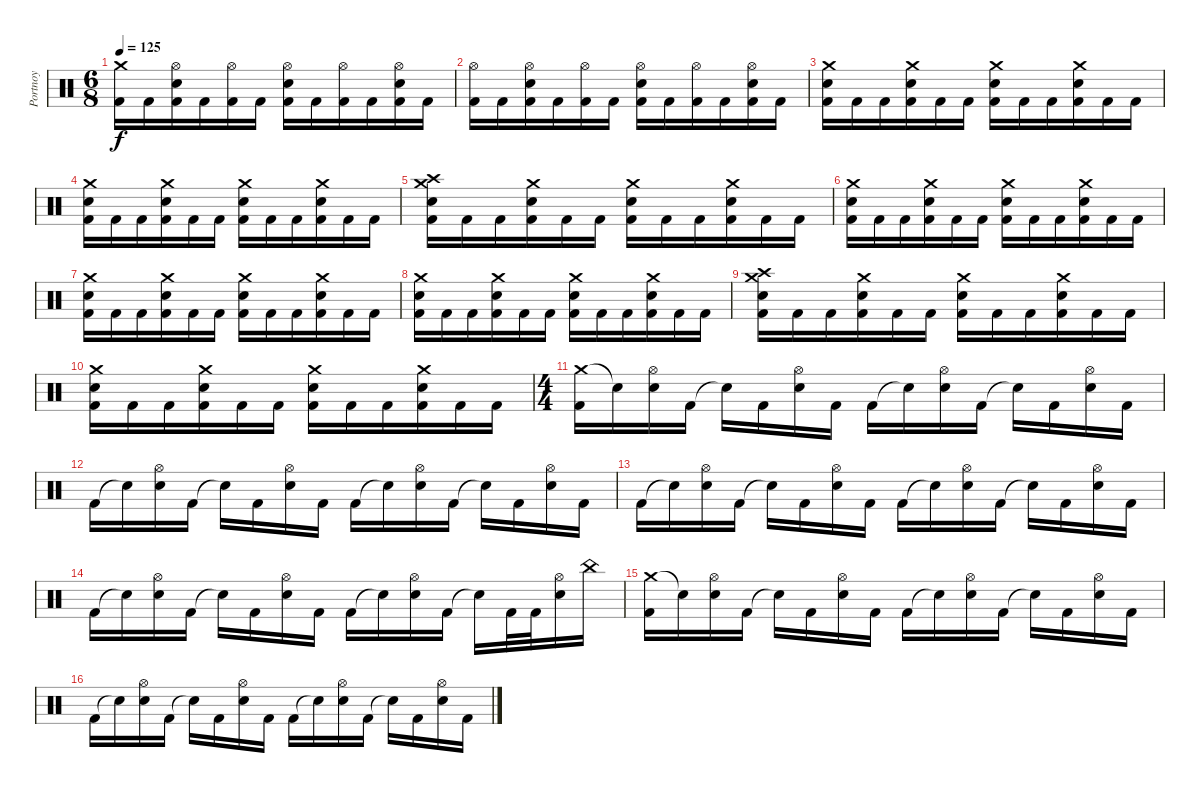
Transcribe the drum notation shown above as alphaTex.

\track ("Portnoy" "Portnoy") {instrument percussion}
\staff {score}
\articulation defaults
\ts (6 8)
\tempo 125
\clef neutral
\ks c
("Crash medium (hit)" "Kick (hit) 2").16{dy f} "Kick (hit) 2".16 ("Hi-Hat (open)" "Snare (hit) 2" "Kick (hit) 2").16 "Kick (hit) 2".16 ("Hi-Hat (open)" "Kick (hit) 2").16 "Kick (hit) 2".16 ("Hi-Hat (open)" "Snare (hit) 2" "Kick (hit) 2").16 "Kick (hit) 2".16 ("Hi-Hat (open)" "Kick (hit) 2").16 "Kick (hit) 2".16 ("Hi-Hat (open)" "Snare (hit) 2" "Kick (hit) 2").16 "Kick (hit) 2".16 |
("Hi-Hat (open)" "Kick (hit) 2").16 "Kick (hit) 2".16 ("Hi-Hat (open)" "Snare (hit) 2" "Kick (hit) 2").16 "Kick (hit) 2".16 ("Hi-Hat (open)" "Kick (hit) 2").16 "Kick (hit) 2".16 ("Hi-Hat (open)" "Snare (hit) 2" "Kick (hit) 2").16 "Kick (hit) 2".16 ("Hi-Hat (open)" "Kick (hit) 2").16 "Kick (hit) 2".16 ("Hi-Hat (open)" "Snare (hit) 2" "Kick (hit) 2").16 "Kick (hit) 2".16 |
("Crash medium (hit)" "Snare (hit) 2" "Kick (hit) 2").16 "Kick (hit) 2".16 "Kick (hit) 2".16 ("Crash medium (hit)" "Snare (hit) 2" "Kick (hit) 2").16 "Kick (hit) 2".16 "Kick (hit) 2".16 ("Crash medium (hit)" "Snare (hit) 2" "Kick (hit) 2").16 "Kick (hit) 2".16 "Kick (hit) 2".16 ("Crash medium (hit)" "Snare (hit) 2" "Kick (hit) 2").16 "Kick (hit) 2".16 "Kick (hit) 2".16 |
("Crash medium (hit)" "Snare (hit) 2" "Kick (hit) 2").16 "Kick (hit) 2".16 "Kick (hit) 2".16 ("Crash medium (hit)" "Snare (hit) 2" "Kick (hit) 2").16 "Kick (hit) 2".16 "Kick (hit) 2".16 ("Crash medium (hit)" "Snare (hit) 2" "Kick (hit) 2").16 "Kick (hit) 2".16 "Kick (hit) 2".16 ("Crash medium (hit)" "Snare (hit) 2" "Kick (hit) 2").16 "Kick (hit) 2".16 "Kick (hit) 2".16 |
("Crash medium (hit)" "Crash high (hit)" "Snare (hit) 2" "Kick (hit) 2").16 "Kick (hit) 2".16 "Kick (hit) 2".16 ("Crash medium (hit)" "Snare (hit) 2" "Kick (hit) 2").16 "Kick (hit) 2".16 "Kick (hit) 2".16 ("Crash medium (hit)" "Snare (hit) 2" "Kick (hit) 2").16 "Kick (hit) 2".16 "Kick (hit) 2".16 ("Crash medium (hit)" "Snare (hit) 2" "Kick (hit) 2").16 "Kick (hit) 2".16 "Kick (hit) 2".16 |
("Crash medium (hit)" "Snare (hit) 2" "Kick (hit) 2").16 "Kick (hit) 2".16 "Kick (hit) 2".16 ("Crash medium (hit)" "Snare (hit) 2" "Kick (hit) 2").16 "Kick (hit) 2".16 "Kick (hit) 2".16 ("Crash medium (hit)" "Snare (hit) 2" "Kick (hit) 2").16 "Kick (hit) 2".16 "Kick (hit) 2".16 ("Crash medium (hit)" "Snare (hit) 2" "Kick (hit) 2").16 "Kick (hit) 2".16 "Kick (hit) 2".16 |
("Crash medium (hit)" "Snare (hit) 2" "Kick (hit) 2").16 "Kick (hit) 2".16 "Kick (hit) 2".16 ("Crash medium (hit)" "Snare (hit) 2" "Kick (hit) 2").16 "Kick (hit) 2".16 "Kick (hit) 2".16 ("Crash medium (hit)" "Snare (hit) 2" "Kick (hit) 2").16 "Kick (hit) 2".16 "Kick (hit) 2".16 ("Crash medium (hit)" "Snare (hit) 2" "Kick (hit) 2").16 "Kick (hit) 2".16 "Kick (hit) 2".16 |
("Crash medium (hit)" "Snare (hit) 2" "Kick (hit) 2").16 "Kick (hit) 2".16 "Kick (hit) 2".16 ("Crash medium (hit)" "Snare (hit) 2" "Kick (hit) 2").16 "Kick (hit) 2".16 "Kick (hit) 2".16 ("Crash medium (hit)" "Snare (hit) 2" "Kick (hit) 2").16 "Kick (hit) 2".16 "Kick (hit) 2".16 ("Crash medium (hit)" "Snare (hit) 2" "Kick (hit) 2").16 "Kick (hit) 2".16 "Kick (hit) 2".16 |
("Crash medium (hit)" "Crash high (hit)" "Snare (hit) 2" "Kick (hit) 2").16 "Kick (hit) 2".16 "Kick (hit) 2".16 ("Crash medium (hit)" "Snare (hit) 2" "Kick (hit) 2").16 "Kick (hit) 2".16 "Kick (hit) 2".16 ("Crash medium (hit)" "Snare (hit) 2" "Kick (hit) 2").16 "Kick (hit) 2".16 "Kick (hit) 2".16 ("Crash medium (hit)" "Snare (hit) 2" "Kick (hit) 2").16 "Kick (hit) 2".16 "Kick (hit) 2".16 |
("Crash medium (hit)" "Snare (hit) 2" "Kick (hit) 2").16 "Kick (hit) 2".16 "Kick (hit) 2".16 ("Crash medium (hit)" "Snare (hit) 2" "Kick (hit) 2").16 "Kick (hit) 2".16 "Kick (hit) 2".16 ("Crash medium (hit)" "Snare (hit) 2" "Kick (hit) 2").16 "Kick (hit) 2".16 "Kick (hit) 2".16 ("Crash medium (hit)" "Snare (hit) 2" "Kick (hit) 2").16 "Kick (hit) 2".16 "Kick (hit) 2".16 |
\ts (4 4)
("Crash medium (hit)" "Kick (hit) 2").16 "Snare (hit)"{t}.16 ("Hi-Hat (open)" "Snare (hit) 2").16 "Kick (hit) 2".16 "Snare (hit)"{t}.16 "Kick (hit) 2".16 ("Hi-Hat (open)" "Snare (hit) 2").16 "Kick (hit) 2".16 "Kick (hit) 2".16 "Snare (hit)"{t}.16 ("Hi-Hat (open)" "Snare (hit) 2").16 "Kick (hit) 2".16 "Snare (hit)"{t}.16 "Kick (hit) 2".16 ("Hi-Hat (open)" "Snare (hit) 2").16 "Kick (hit) 2".16 |
"Kick (hit) 2".16 "Snare (hit)"{t}.16 ("Hi-Hat (open)" "Snare (hit) 2").16 "Kick (hit) 2".16 "Snare (hit)"{t}.16 "Kick (hit) 2".16 ("Hi-Hat (open)" "Snare (hit) 2").16 "Kick (hit) 2".16 "Kick (hit) 2".16 "Snare (hit)"{t}.16 ("Hi-Hat (open)" "Snare (hit) 2").16 "Kick (hit) 2".16 "Snare (hit)"{t}.16 "Kick (hit) 2".16 ("Hi-Hat (open)" "Snare (hit) 2").16 "Kick (hit) 2".16 |
"Kick (hit) 2".16 "Snare (hit)"{t}.16 ("Hi-Hat (open)" "Snare (hit) 2").16 "Kick (hit) 2".16 "Snare (hit)"{t}.16 "Kick (hit) 2".16 ("Hi-Hat (open)" "Snare (hit) 2").16 "Kick (hit) 2".16 "Kick (hit) 2".16 "Snare (hit)"{t}.16 ("Hi-Hat (open)" "Snare (hit) 2").16 "Kick (hit) 2".16 "Snare (hit)"{t}.16 "Kick (hit) 2".16 ("Hi-Hat (open)" "Snare (hit) 2").16 "Kick (hit) 2".16 |
"Kick (hit) 2".16 "Snare (hit)"{t}.16 ("Hi-Hat (open)" "Snare (hit) 2").16 "Kick (hit) 2".16 "Snare (hit)"{t}.16 "Kick (hit) 2".16 ("Hi-Hat (open)" "Snare (hit) 2").16 "Kick (hit) 2".16 "Kick (hit) 2".16 "Snare (hit)"{t}.16 ("Hi-Hat (open)" "Snare (hit) 2").16 "Kick (hit) 2".16 "Snare (hit)"{t}.16 "Kick (hit) 2".32 "Kick (hit) 2".32 ("Hi-Hat (open)" "Snare (hit) 2").16 "China (hit)".16 |
("Crash medium (hit)" "Kick (hit) 2").16 "Snare (hit)"{t}.16 ("Hi-Hat (open)" "Snare (hit) 2").16 "Kick (hit) 2".16 "Snare (hit)"{t}.16 "Kick (hit) 2".16 ("Hi-Hat (open)" "Snare (hit) 2").16 "Kick (hit) 2".16 "Kick (hit) 2".16 "Snare (hit)"{t}.16 ("Hi-Hat (open)" "Snare (hit) 2").16 "Kick (hit) 2".16 "Snare (hit)"{t}.16 "Kick (hit) 2".16 ("Hi-Hat (open)" "Snare (hit) 2").16 "Kick (hit) 2".16 |
"Kick (hit) 2".16 "Snare (hit)"{t}.16 ("Hi-Hat (open)" "Snare (hit) 2").16 "Kick (hit) 2".16 "Snare (hit)"{t}.16 "Kick (hit) 2".16 ("Hi-Hat (open)" "Snare (hit) 2").16 "Kick (hit) 2".16 "Kick (hit) 2".16 "Snare (hit)"{t}.16 ("Hi-Hat (open)" "Snare (hit) 2").16 "Kick (hit) 2".16 "Snare (hit)"{t}.16 "Kick (hit) 2".16 ("Hi-Hat (open)" "Snare (hit) 2").16 "Kick (hit) 2".16
